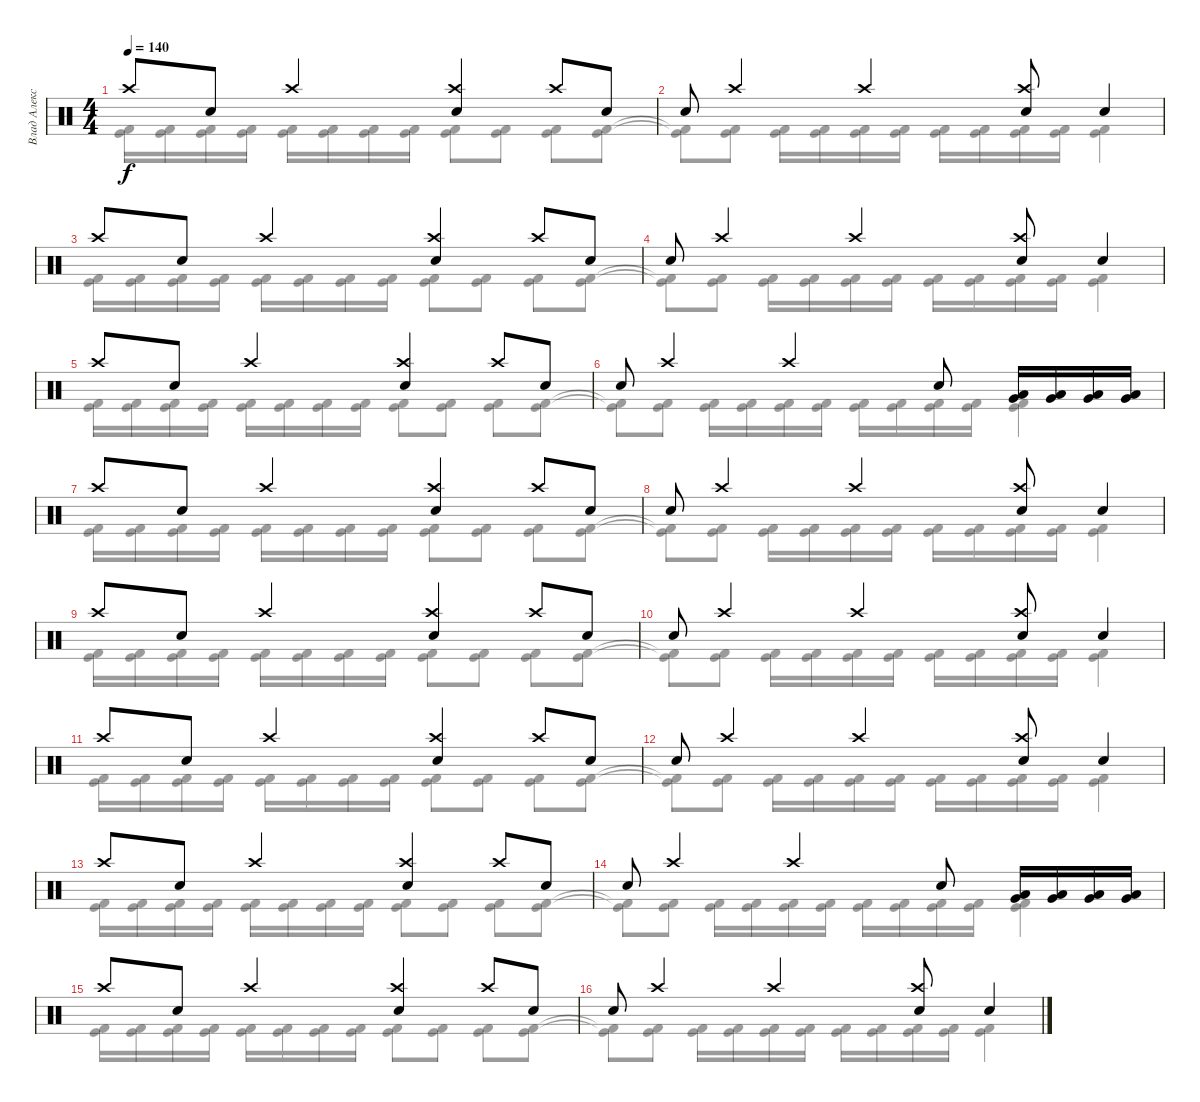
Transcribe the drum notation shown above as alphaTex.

\track ("Влад Алексеенко" "Влад Алекс") {instrument percussion}
\staff {score}
\articulation defaults
\voice
\ts (4 4)
\tempo 140
\clef neutral
\ks c "Crash high (hit)".8{dy f} "Electric Snare (hit)".8 "Crash high (hit)".4
("Electric Snare (hit)" "Crash high (hit)").4 "Crash high (hit)".8 "Electric Snare (hit)".8 |
"Electric Snare (hit)".8 "Crash high (hit)".4 "Crash high (hit)".4 ("Electric Snare (hit)" "Crash high (hit)").8 "Electric Snare (hit)".4 |
"Crash high (hit)".8 "Electric Snare (hit)".8 "Crash high (hit)".4 ("Electric Snare (hit)" "Crash high (hit)").4 "Crash high (hit)".8 "Electric Snare (hit)".8 |
"Electric Snare (hit)".8 "Crash high (hit)".4 "Crash high (hit)".4 ("Electric Snare (hit)" "Crash high (hit)").8 "Electric Snare (hit)".4 |
"Crash high (hit)".8 "Electric Snare (hit)".8 "Crash high (hit)".4 ("Electric Snare (hit)" "Crash high (hit)").4 "Crash high (hit)".8 "Electric Snare (hit)".8 |
"Electric Snare (hit)".8 "Crash high (hit)".4 "Crash high (hit)".4 "Electric Snare (hit)".8 ("Low Tom (hit)" "Very Low Tom (hit)").16 ("Low Tom (hit)" "Very Low Tom (hit)").16 ("Low Tom (hit)" "Very Low Tom (hit)").16 ("Low Tom (hit)" "Very Low Tom (hit)").16 |
"Crash high (hit)".8 "Electric Snare (hit)".8 "Crash high (hit)".4 ("Electric Snare (hit)" "Crash high (hit)").4 "Crash high (hit)".8 "Electric Snare (hit)".8 |
"Electric Snare (hit)".8 "Crash high (hit)".4 "Crash high (hit)".4 ("Electric Snare (hit)" "Crash high (hit)").8 "Electric Snare (hit)".4 |
"Crash high (hit)".8 "Electric Snare (hit)".8 "Crash high (hit)".4 ("Electric Snare (hit)" "Crash high (hit)").4 "Crash high (hit)".8 "Electric Snare (hit)".8 |
"Electric Snare (hit)".8 "Crash high (hit)".4 "Crash high (hit)".4 ("Electric Snare (hit)" "Crash high (hit)").8 "Electric Snare (hit)".4 |
"Crash high (hit)".8 "Electric Snare (hit)".8 "Crash high (hit)".4 ("Electric Snare (hit)" "Crash high (hit)").4 "Crash high (hit)".8 "Electric Snare (hit)".8 |
"Electric Snare (hit)".8 "Crash high (hit)".4 "Crash high (hit)".4 ("Electric Snare (hit)" "Crash high (hit)").8 "Electric Snare (hit)".4 |
"Crash high (hit)".8 "Electric Snare (hit)".8 "Crash high (hit)".4 ("Electric Snare (hit)" "Crash high (hit)").4 "Crash high (hit)".8 "Electric Snare (hit)".8 |
"Electric Snare (hit)".8 "Crash high (hit)".4 "Crash high (hit)".4 "Electric Snare (hit)".8 ("Low Tom (hit)" "Very Low Tom (hit)").16 ("Low Tom (hit)" "Very Low Tom (hit)").16 ("Low Tom (hit)" "Very Low Tom (hit)").16 ("Low Tom (hit)" "Very Low Tom (hit)").16 |
"Crash high (hit)".8 "Electric Snare (hit)".8 "Crash high (hit)".4 ("Electric Snare (hit)" "Crash high (hit)").4 "Crash high (hit)".8 "Electric Snare (hit)".8 |
"Electric Snare (hit)".8 "Crash high (hit)".4 "Crash high (hit)".4 ("Electric Snare (hit)" "Crash high (hit)").8 "Electric Snare (hit)".4
\voice
\clef neutral
\ottava regular
\simile none
\ks c
("Kick (hit) 2" "Kick (hit)").16{dy f} ("Kick (hit) 2" "Kick (hit)").16 ("Kick (hit) 2" "Kick (hit)").16 ("Kick (hit) 2" "Kick (hit)").16 ("Kick (hit) 2" "Kick (hit)").16 ("Kick (hit) 2" "Kick (hit)").16 ("Kick (hit) 2" "Kick (hit)").16 ("Kick (hit) 2" "Kick (hit)").16 ("Kick (hit) 2" "Kick (hit)").8 ("Kick (hit) 2" "Kick (hit)").8 ("Kick (hit) 2" "Kick (hit)").8 ("Kick (hit) 2" "Kick (hit)").8 |
("Kick (hit) 2"{t} "Kick (hit)"{t}).8 ("Kick (hit) 2" "Kick (hit)").8 ("Kick (hit) 2" "Kick (hit)").16 ("Kick (hit) 2" "Kick (hit)").16 ("Kick (hit) 2" "Kick (hit)").16 ("Kick (hit) 2" "Kick (hit)").16 ("Kick (hit) 2" "Kick (hit)").16 ("Kick (hit) 2" "Kick (hit)").16 ("Kick (hit) 2" "Kick (hit)").16 ("Kick (hit) 2" "Kick (hit)").16 ("Kick (hit) 2" "Kick (hit)").4 |
("Kick (hit) 2" "Kick (hit)").16 ("Kick (hit) 2" "Kick (hit)").16 ("Kick (hit) 2" "Kick (hit)").16 ("Kick (hit) 2" "Kick (hit)").16 ("Kick (hit) 2" "Kick (hit)").16 ("Kick (hit) 2" "Kick (hit)").16 ("Kick (hit) 2" "Kick (hit)").16 ("Kick (hit) 2" "Kick (hit)").16 ("Kick (hit) 2" "Kick (hit)").8 ("Kick (hit) 2" "Kick (hit)").8 ("Kick (hit) 2" "Kick (hit)").8 ("Kick (hit) 2" "Kick (hit)").8 |
("Kick (hit) 2"{t} "Kick (hit)"{t}).8 ("Kick (hit) 2" "Kick (hit)").8 ("Kick (hit) 2" "Kick (hit)").16 ("Kick (hit) 2" "Kick (hit)").16 ("Kick (hit) 2" "Kick (hit)").16 ("Kick (hit) 2" "Kick (hit)").16 ("Kick (hit) 2" "Kick (hit)").16 ("Kick (hit) 2" "Kick (hit)").16 ("Kick (hit) 2" "Kick (hit)").16 ("Kick (hit) 2" "Kick (hit)").16 ("Kick (hit) 2" "Kick (hit)").4 |
("Kick (hit) 2" "Kick (hit)").16 ("Kick (hit) 2" "Kick (hit)").16 ("Kick (hit) 2" "Kick (hit)").16 ("Kick (hit) 2" "Kick (hit)").16 ("Kick (hit) 2" "Kick (hit)").16 ("Kick (hit) 2" "Kick (hit)").16 ("Kick (hit) 2" "Kick (hit)").16 ("Kick (hit) 2" "Kick (hit)").16 ("Kick (hit) 2" "Kick (hit)").8 ("Kick (hit) 2" "Kick (hit)").8 ("Kick (hit) 2" "Kick (hit)").8 ("Kick (hit) 2" "Kick (hit)").8 |
("Kick (hit) 2"{t} "Kick (hit)"{t}).8 ("Kick (hit) 2" "Kick (hit)").8 ("Kick (hit) 2" "Kick (hit)").16 ("Kick (hit) 2" "Kick (hit)").16 ("Kick (hit) 2" "Kick (hit)").16 ("Kick (hit) 2" "Kick (hit)").16 ("Kick (hit) 2" "Kick (hit)").16 ("Kick (hit) 2" "Kick (hit)").16 ("Kick (hit) 2" "Kick (hit)").16 ("Kick (hit) 2" "Kick (hit)").16 ("Kick (hit) 2" "Kick (hit)").4 |
("Kick (hit) 2" "Kick (hit)").16 ("Kick (hit) 2" "Kick (hit)").16 ("Kick (hit) 2" "Kick (hit)").16 ("Kick (hit) 2" "Kick (hit)").16 ("Kick (hit) 2" "Kick (hit)").16 ("Kick (hit) 2" "Kick (hit)").16 ("Kick (hit) 2" "Kick (hit)").16 ("Kick (hit) 2" "Kick (hit)").16 ("Kick (hit) 2" "Kick (hit)").8 ("Kick (hit) 2" "Kick (hit)").8 ("Kick (hit) 2" "Kick (hit)").8 ("Kick (hit) 2" "Kick (hit)").8 |
("Kick (hit) 2"{t} "Kick (hit)"{t}).8 ("Kick (hit) 2" "Kick (hit)").8 ("Kick (hit) 2" "Kick (hit)").16 ("Kick (hit) 2" "Kick (hit)").16 ("Kick (hit) 2" "Kick (hit)").16 ("Kick (hit) 2" "Kick (hit)").16 ("Kick (hit) 2" "Kick (hit)").16 ("Kick (hit) 2" "Kick (hit)").16 ("Kick (hit) 2" "Kick (hit)").16 ("Kick (hit) 2" "Kick (hit)").16 ("Kick (hit) 2" "Kick (hit)").4 |
("Kick (hit) 2" "Kick (hit)").16 ("Kick (hit) 2" "Kick (hit)").16 ("Kick (hit) 2" "Kick (hit)").16 ("Kick (hit) 2" "Kick (hit)").16 ("Kick (hit) 2" "Kick (hit)").16 ("Kick (hit) 2" "Kick (hit)").16 ("Kick (hit) 2" "Kick (hit)").16 ("Kick (hit) 2" "Kick (hit)").16 ("Kick (hit) 2" "Kick (hit)").8 ("Kick (hit) 2" "Kick (hit)").8 ("Kick (hit) 2" "Kick (hit)").8 ("Kick (hit) 2" "Kick (hit)").8 |
("Kick (hit) 2"{t} "Kick (hit)"{t}).8 ("Kick (hit) 2" "Kick (hit)").8 ("Kick (hit) 2" "Kick (hit)").16 ("Kick (hit) 2" "Kick (hit)").16 ("Kick (hit) 2" "Kick (hit)").16 ("Kick (hit) 2" "Kick (hit)").16 ("Kick (hit) 2" "Kick (hit)").16 ("Kick (hit) 2" "Kick (hit)").16 ("Kick (hit) 2" "Kick (hit)").16 ("Kick (hit) 2" "Kick (hit)").16 ("Kick (hit) 2" "Kick (hit)").4 |
("Kick (hit) 2" "Kick (hit)").16 ("Kick (hit) 2" "Kick (hit)").16 ("Kick (hit) 2" "Kick (hit)").16 ("Kick (hit) 2" "Kick (hit)").16 ("Kick (hit) 2" "Kick (hit)").16 ("Kick (hit) 2" "Kick (hit)").16 ("Kick (hit) 2" "Kick (hit)").16 ("Kick (hit) 2" "Kick (hit)").16 ("Kick (hit) 2" "Kick (hit)").8 ("Kick (hit) 2" "Kick (hit)").8 ("Kick (hit) 2" "Kick (hit)").8 ("Kick (hit) 2" "Kick (hit)").8 |
("Kick (hit) 2"{t} "Kick (hit)"{t}).8 ("Kick (hit) 2" "Kick (hit)").8 ("Kick (hit) 2" "Kick (hit)").16 ("Kick (hit) 2" "Kick (hit)").16 ("Kick (hit) 2" "Kick (hit)").16 ("Kick (hit) 2" "Kick (hit)").16 ("Kick (hit) 2" "Kick (hit)").16 ("Kick (hit) 2" "Kick (hit)").16 ("Kick (hit) 2" "Kick (hit)").16 ("Kick (hit) 2" "Kick (hit)").16 ("Kick (hit) 2" "Kick (hit)").4 |
("Kick (hit) 2" "Kick (hit)").16 ("Kick (hit) 2" "Kick (hit)").16 ("Kick (hit) 2" "Kick (hit)").16 ("Kick (hit) 2" "Kick (hit)").16 ("Kick (hit) 2" "Kick (hit)").16 ("Kick (hit) 2" "Kick (hit)").16 ("Kick (hit) 2" "Kick (hit)").16 ("Kick (hit) 2" "Kick (hit)").16 ("Kick (hit) 2" "Kick (hit)").8 ("Kick (hit) 2" "Kick (hit)").8 ("Kick (hit) 2" "Kick (hit)").8 ("Kick (hit) 2" "Kick (hit)").8 |
("Kick (hit) 2"{t} "Kick (hit)"{t}).8 ("Kick (hit) 2" "Kick (hit)").8 ("Kick (hit) 2" "Kick (hit)").16 ("Kick (hit) 2" "Kick (hit)").16 ("Kick (hit) 2" "Kick (hit)").16 ("Kick (hit) 2" "Kick (hit)").16 ("Kick (hit) 2" "Kick (hit)").16 ("Kick (hit) 2" "Kick (hit)").16 ("Kick (hit) 2" "Kick (hit)").16 ("Kick (hit) 2" "Kick (hit)").16 ("Kick (hit) 2" "Kick (hit)").4 |
("Kick (hit) 2" "Kick (hit)").16 ("Kick (hit) 2" "Kick (hit)").16 ("Kick (hit) 2" "Kick (hit)").16 ("Kick (hit) 2" "Kick (hit)").16 ("Kick (hit) 2" "Kick (hit)").16 ("Kick (hit) 2" "Kick (hit)").16 ("Kick (hit) 2" "Kick (hit)").16 ("Kick (hit) 2" "Kick (hit)").16 ("Kick (hit) 2" "Kick (hit)").8 ("Kick (hit) 2" "Kick (hit)").8 ("Kick (hit) 2" "Kick (hit)").8 ("Kick (hit) 2" "Kick (hit)").8 |
("Kick (hit) 2"{t} "Kick (hit)"{t}).8 ("Kick (hit) 2" "Kick (hit)").8 ("Kick (hit) 2" "Kick (hit)").16 ("Kick (hit) 2" "Kick (hit)").16 ("Kick (hit) 2" "Kick (hit)").16 ("Kick (hit) 2" "Kick (hit)").16 ("Kick (hit) 2" "Kick (hit)").16 ("Kick (hit) 2" "Kick (hit)").16 ("Kick (hit) 2" "Kick (hit)").16 ("Kick (hit) 2" "Kick (hit)").16 ("Kick (hit) 2" "Kick (hit)").4
